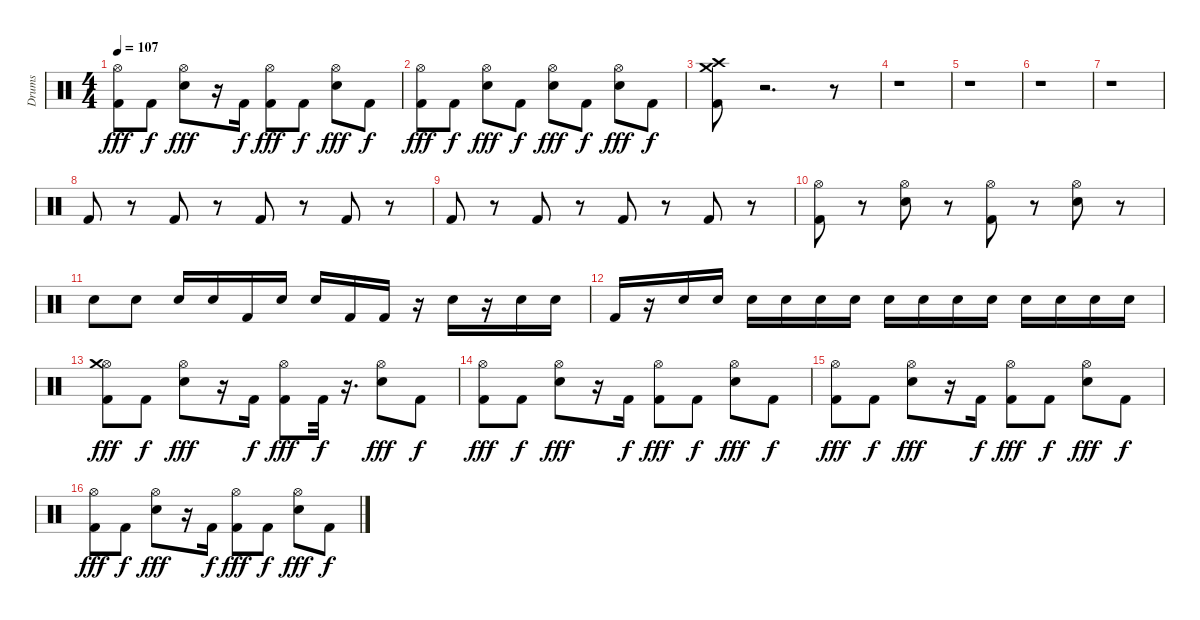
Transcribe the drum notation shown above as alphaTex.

\track ("Drums" "Drums") {instrument percussion}
\staff {score}
\articulation defaults
\ts (4 4)
\tempo 107
\clef neutral
\ks c
("Kick (hit) 2" "Hi-Hat (open)").8{dy fff} "Kick (hit) 2".8{dy f} ("Hi-Hat (open)" "Snare (hit) 2").8{dy fff} r.16 "Kick (hit) 2".16{dy f} ("Kick (hit) 2" "Hi-Hat (open)").8{dy fff} "Kick (hit) 2".8{dy f} ("Snare (hit) 2" "Hi-Hat (open)").8{dy fff} "Kick (hit) 2".8{dy f} |
("Kick (hit) 2" "Hi-Hat (open)").8{dy fff} "Kick (hit) 2".8{dy f} ("Hi-Hat (open)" "Snare (hit) 2").8{dy fff} "Kick (hit) 2".8{dy f} ("Snare (hit) 2" "Hi-Hat (open)").8{dy fff} "Kick (hit) 2".8{dy f} ("Snare (hit) 2" "Hi-Hat (open)").8{dy fff} "Kick (hit) 2".8{dy f} |
("Crash high (hit)" "Kick (hit) 2" "Crash medium (hit)").8 r.2{d} r.8 |
r.1 |
r.1 |
r.1 |
r.1 |
"Kick (hit) 2".8 r.8 "Kick (hit) 2".8 r.8 "Kick (hit) 2".8 r.8 "Kick (hit) 2".8 r.8 |
"Kick (hit) 2".8 r.8 "Kick (hit) 2".8 r.8 "Kick (hit) 2".8 r.8 "Kick (hit) 2".8 r.8 |
("Kick (hit) 2" "Hi-Hat (open)").8 r.8 ("Hi-Hat (open)" "Snare (hit) 2").8 r.8 ("Hi-Hat (open)" "Kick (hit) 2").8 r.8 ("Hi-Hat (open)" "Snare (hit) 2").8 r.8 |
"Snare (hit) 2".8 "Snare (hit) 2".8 "Snare (hit) 2".16 "Snare (hit) 2".16 "Kick (hit) 2".16 "Snare (hit) 2".16 "Snare (hit) 2".16 "Kick (hit) 2".16 "Kick (hit) 2".16 r.16 "Snare (hit) 2".16 r.16 "Snare (hit) 2".16 "Snare (hit) 2".16 |
"Kick (hit) 2".16 r.16 "Snare (hit) 2".16 "Snare (hit) 2".16 "Snare (hit) 2".16 "Snare (hit) 2".16 "Snare (hit) 2".16 "Snare (hit) 2".16 "Snare (hit) 2".16 "Snare (hit) 2".16 "Snare (hit) 2".16 "Snare (hit) 2".16 "Snare (hit) 2".16 "Snare (hit) 2".16 "Snare (hit) 2".16 "Snare (hit) 2".16 |
("Hi-Hat (open)" "Kick (hit) 2" "Crash medium (hit)").8{dy fff} "Kick (hit) 2".8{dy f} ("Snare (hit) 2" "Hi-Hat (open)").8{dy fff} r.16 "Kick (hit) 2".16{dy f} ("Kick (hit) 2" "Hi-Hat (open)").8{dy fff} "Kick (hit) 2".32{dy f} r.16{d} ("Snare (hit) 2" "Hi-Hat (open)").8{dy fff} "Kick (hit) 2".8{dy f} |
("Kick (hit) 2" "Hi-Hat (open)").8{dy fff} "Kick (hit) 2".8{dy f} ("Snare (hit) 2" "Hi-Hat (open)").8{dy fff} r.16 "Kick (hit) 2".16{dy f} ("Kick (hit) 2" "Hi-Hat (open)").8{dy fff} "Kick (hit) 2".8{dy f} ("Snare (hit) 2" "Hi-Hat (open)").8{dy fff} "Kick (hit) 2".8{dy f} |
("Kick (hit) 2" "Hi-Hat (open)").8{dy fff} "Kick (hit) 2".8{dy f} ("Hi-Hat (open)" "Snare (hit) 2").8{dy fff} r.16 "Kick (hit) 2".16{dy f} ("Kick (hit) 2" "Hi-Hat (open)").8{dy fff} "Kick (hit) 2".8{dy f} ("Snare (hit) 2" "Hi-Hat (open)").8{dy fff} "Kick (hit) 2".8{dy f} |
("Kick (hit) 2" "Hi-Hat (open)").8{dy fff} "Kick (hit) 2".8{dy f} ("Hi-Hat (open)" "Snare (hit) 2").8{dy fff} r.16 "Kick (hit) 2".16{dy f} ("Kick (hit) 2" "Hi-Hat (open)").8{dy fff} "Kick (hit) 2".8{dy f} ("Snare (hit) 2" "Hi-Hat (open)").8{dy fff} "Kick (hit) 2".8{dy f}
